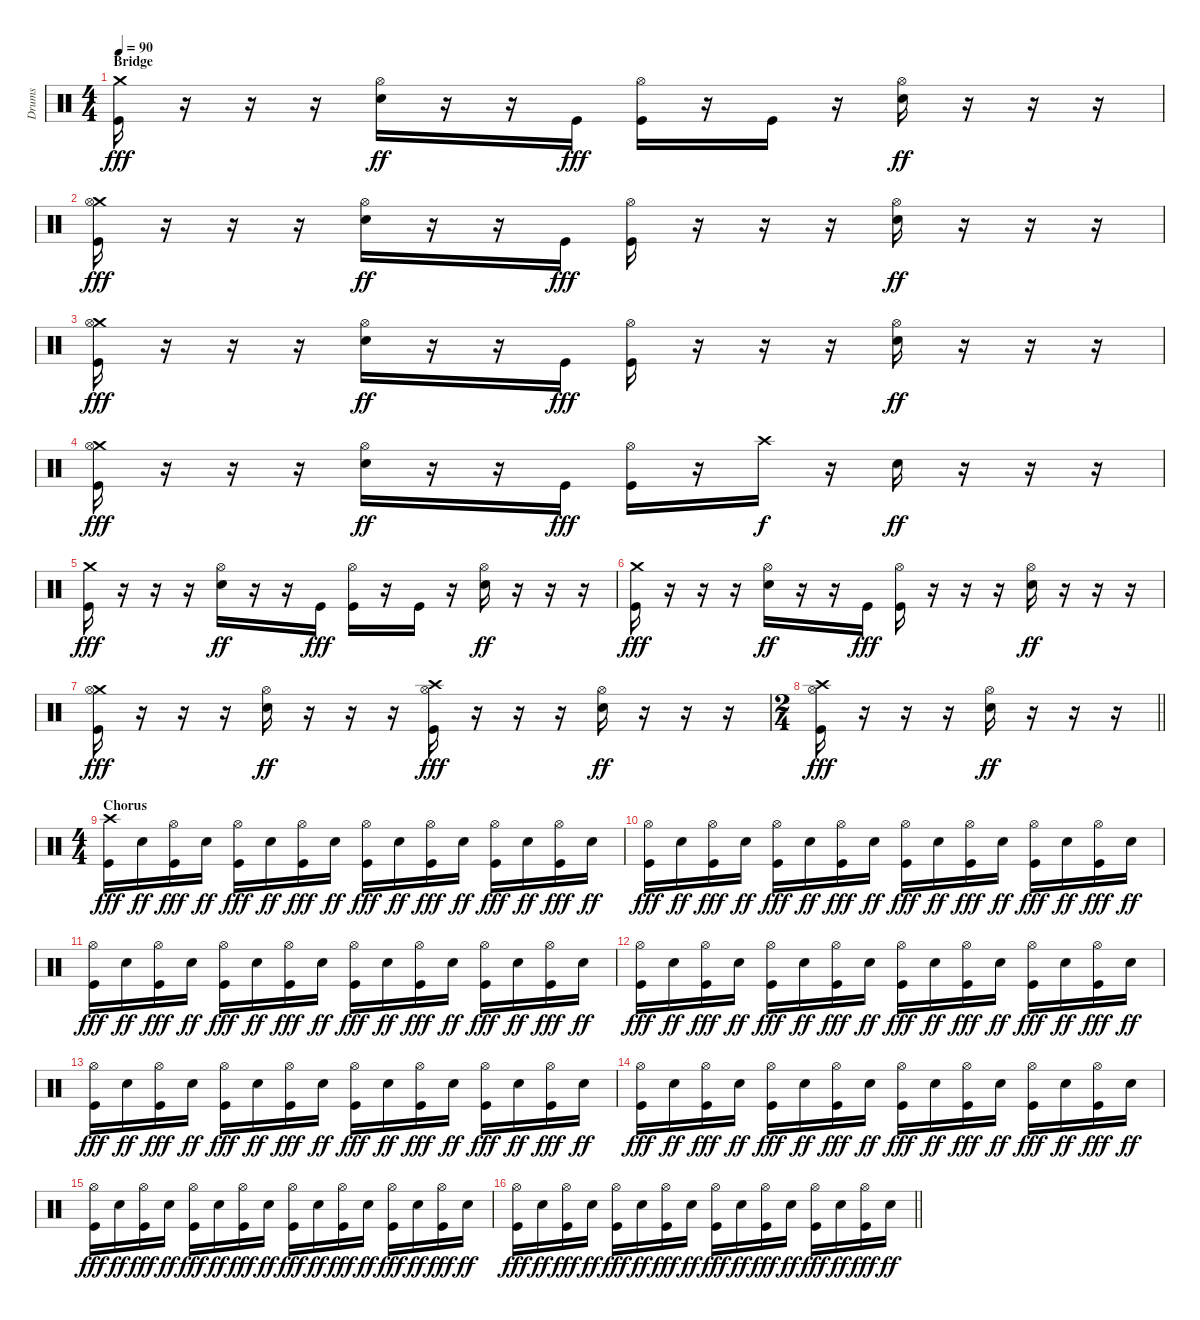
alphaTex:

\track ("Drums" "Drums") {instrument percussion}
\staff {score}
\articulation defaults
\ts (4 4)
\section ("" "Bridge")
\tempo 90
\clef neutral
\ks c
("Crash medium (hit)" "Kick (hit)").16{dy fff} r.16 r.16 r.16 ("Hi-Hat (open)" "Electric Snare (hit)").16{dy ff} r.16 r.16 "Kick (hit)".16{dy fff} ("Hi-Hat (open)" "Kick (hit)").16 r.16 "Kick (hit)".16 r.16 ("Hi-Hat (open)" "Electric Snare (hit)").16{dy ff} r.16 r.16 r.16 |
("Crash medium (hit)" "Hi-Hat (open)" "Kick (hit)").16{dy fff} r.16 r.16 r.16 ("Hi-Hat (open)" "Electric Snare (hit)").16{dy ff} r.16 r.16 "Kick (hit)".16{dy fff} ("Hi-Hat (open)" "Kick (hit)").16 r.16 r.16 r.16 ("Hi-Hat (open)" "Electric Snare (hit)").16{dy ff} r.16 r.16 r.16 |
("Crash medium (hit)" "Hi-Hat (open)" "Kick (hit)").16{dy fff} r.16 r.16 r.16 ("Hi-Hat (open)" "Electric Snare (hit)").16{dy ff} r.16 r.16 "Kick (hit)".16{dy fff} ("Hi-Hat (open)" "Kick (hit)").16 r.16 r.16 r.16 ("Hi-Hat (open)" "Electric Snare (hit)").16{dy ff} r.16 r.16 r.16 |
("Crash medium (hit)" "Hi-Hat (open)" "Kick (hit)").16{dy fff} r.16 r.16 r.16 ("Hi-Hat (open)" "Electric Snare (hit)").16{dy ff} r.16 r.16 "Kick (hit)".16{dy fff} ("Hi-Hat (open)" "Kick (hit)").16 r.16 "Crash high (hit)".16{dy f} r.16 "Electric Snare (hit)".16{dy ff} r.16 r.16 r.16 |
("Crash medium (hit)" "Kick (hit)").16{dy fff} r.16 r.16 r.16 ("Hi-Hat (open)" "Electric Snare (hit)").16{dy ff} r.16 r.16 "Kick (hit)".16{dy fff} ("Hi-Hat (open)" "Kick (hit)").16 r.16 "Kick (hit)".16 r.16 ("Hi-Hat (open)" "Electric Snare (hit)").16{dy ff} r.16 r.16 r.16 |
("Crash medium (hit)" "Kick (hit)").16{dy fff} r.16 r.16 r.16 ("Hi-Hat (open)" "Electric Snare (hit)").16{dy ff} r.16 r.16 "Kick (hit)".16{dy fff} ("Hi-Hat (open)" "Kick (hit)").16 r.16 r.16 r.16 ("Hi-Hat (open)" "Electric Snare (hit)").16{dy ff} r.16 r.16 r.16 |
("Crash medium (hit)" "Hi-Hat (open)" "Kick (hit)").16{dy fff} r.16 r.16 r.16 ("Hi-Hat (open)" "Electric Snare (hit)").16{dy ff} r.16 r.16 r.16 ("Crash high (hit)" "Hi-Hat (open)" "Kick (hit)").16{dy fff} r.16 r.16 r.16 ("Hi-Hat (open)" "Electric Snare (hit)").16{dy ff} r.16 r.16 r.16 |
\ts (2 4)
\barLineRight lightlight
("Crash high (hit)" "Hi-Hat (open)" "Kick (hit)").16{dy fff} r.16 r.16 r.16 ("Hi-Hat (open)" "Electric Snare (hit)").16{dy ff} r.16 r.16 r.16 |
\ts (4 4)
\section ("" "Chorus")
("Crash high (hit)" "Kick (hit)").16{dy fff} "Electric Snare (hit)".16{dy ff} ("Hi-Hat (open)" "Kick (hit)").16{dy fff} "Electric Snare (hit)".16{dy ff} ("Hi-Hat (open)" "Kick (hit)").16{dy fff} "Electric Snare (hit)".16{dy ff} ("Hi-Hat (open)" "Kick (hit)").16{dy fff} "Electric Snare (hit)".16{dy ff} ("Hi-Hat (open)" "Kick (hit)").16{dy fff} "Electric Snare (hit)".16{dy ff} ("Hi-Hat (open)" "Kick (hit)").16{dy fff} "Electric Snare (hit)".16{dy ff} ("Hi-Hat (open)" "Kick (hit)").16{dy fff} "Electric Snare (hit)".16{dy ff} ("Hi-Hat (open)" "Kick (hit)").16{dy fff} "Electric Snare (hit)".16{dy ff} |
("Hi-Hat (open)" "Kick (hit)").16{dy fff} "Electric Snare (hit)".16{dy ff} ("Hi-Hat (open)" "Kick (hit)").16{dy fff} "Electric Snare (hit)".16{dy ff} ("Hi-Hat (open)" "Kick (hit)").16{dy fff} "Electric Snare (hit)".16{dy ff} ("Hi-Hat (open)" "Kick (hit)").16{dy fff} "Electric Snare (hit)".16{dy ff} ("Hi-Hat (open)" "Kick (hit)").16{dy fff} "Electric Snare (hit)".16{dy ff} ("Hi-Hat (open)" "Kick (hit)").16{dy fff} "Electric Snare (hit)".16{dy ff} ("Hi-Hat (open)" "Kick (hit)").16{dy fff} "Electric Snare (hit)".16{dy ff} ("Hi-Hat (open)" "Kick (hit)").16{dy fff} "Electric Snare (hit)".16{dy ff} |
("Hi-Hat (open)" "Kick (hit)").16{dy fff} "Electric Snare (hit)".16{dy ff} ("Hi-Hat (open)" "Kick (hit)").16{dy fff} "Electric Snare (hit)".16{dy ff} ("Hi-Hat (open)" "Kick (hit)").16{dy fff} "Electric Snare (hit)".16{dy ff} ("Hi-Hat (open)" "Kick (hit)").16{dy fff} "Electric Snare (hit)".16{dy ff} ("Hi-Hat (open)" "Kick (hit)").16{dy fff} "Electric Snare (hit)".16{dy ff} ("Hi-Hat (open)" "Kick (hit)").16{dy fff} "Electric Snare (hit)".16{dy ff} ("Hi-Hat (open)" "Kick (hit)").16{dy fff} "Electric Snare (hit)".16{dy ff} ("Hi-Hat (open)" "Kick (hit)").16{dy fff} "Electric Snare (hit)".16{dy ff} |
("Hi-Hat (open)" "Kick (hit)").16{dy fff} "Electric Snare (hit)".16{dy ff} ("Hi-Hat (open)" "Kick (hit)").16{dy fff} "Electric Snare (hit)".16{dy ff} ("Hi-Hat (open)" "Kick (hit)").16{dy fff} "Electric Snare (hit)".16{dy ff} ("Hi-Hat (open)" "Kick (hit)").16{dy fff} "Electric Snare (hit)".16{dy ff} ("Hi-Hat (open)" "Kick (hit)").16{dy fff} "Electric Snare (hit)".16{dy ff} ("Hi-Hat (open)" "Kick (hit)").16{dy fff} "Electric Snare (hit)".16{dy ff} ("Hi-Hat (open)" "Kick (hit)").16{dy fff} "Electric Snare (hit)".16{dy ff} ("Hi-Hat (open)" "Kick (hit)").16{dy fff} "Electric Snare (hit)".16{dy ff} |
("Hi-Hat (open)" "Kick (hit)").16{dy fff} "Electric Snare (hit)".16{dy ff} ("Hi-Hat (open)" "Kick (hit)").16{dy fff} "Electric Snare (hit)".16{dy ff} ("Hi-Hat (open)" "Kick (hit)").16{dy fff} "Electric Snare (hit)".16{dy ff} ("Hi-Hat (open)" "Kick (hit)").16{dy fff} "Electric Snare (hit)".16{dy ff} ("Hi-Hat (open)" "Kick (hit)").16{dy fff} "Electric Snare (hit)".16{dy ff} ("Hi-Hat (open)" "Kick (hit)").16{dy fff} "Electric Snare (hit)".16{dy ff} ("Hi-Hat (open)" "Kick (hit)").16{dy fff} "Electric Snare (hit)".16{dy ff} ("Hi-Hat (open)" "Kick (hit)").16{dy fff} "Electric Snare (hit)".16{dy ff} |
("Hi-Hat (open)" "Kick (hit)").16{dy fff} "Electric Snare (hit)".16{dy ff} ("Hi-Hat (open)" "Kick (hit)").16{dy fff} "Electric Snare (hit)".16{dy ff} ("Hi-Hat (open)" "Kick (hit)").16{dy fff} "Electric Snare (hit)".16{dy ff} ("Hi-Hat (open)" "Kick (hit)").16{dy fff} "Electric Snare (hit)".16{dy ff} ("Hi-Hat (open)" "Kick (hit)").16{dy fff} "Electric Snare (hit)".16{dy ff} ("Hi-Hat (open)" "Kick (hit)").16{dy fff} "Electric Snare (hit)".16{dy ff} ("Hi-Hat (open)" "Kick (hit)").16{dy fff} "Electric Snare (hit)".16{dy ff} ("Hi-Hat (open)" "Kick (hit)").16{dy fff} "Electric Snare (hit)".16{dy ff} |
("Hi-Hat (open)" "Kick (hit)").16{dy fff} "Electric Snare (hit)".16{dy ff} ("Hi-Hat (open)" "Kick (hit)").16{dy fff} "Electric Snare (hit)".16{dy ff} ("Hi-Hat (open)" "Kick (hit)").16{dy fff} "Electric Snare (hit)".16{dy ff} ("Hi-Hat (open)" "Kick (hit)").16{dy fff} "Electric Snare (hit)".16{dy ff} ("Hi-Hat (open)" "Kick (hit)").16{dy fff} "Electric Snare (hit)".16{dy ff} ("Hi-Hat (open)" "Kick (hit)").16{dy fff} "Electric Snare (hit)".16{dy ff} ("Hi-Hat (open)" "Kick (hit)").16{dy fff} "Electric Snare (hit)".16{dy ff} ("Hi-Hat (open)" "Kick (hit)").16{dy fff} "Electric Snare (hit)".16{dy ff} |
\barLineRight lightlight
("Hi-Hat (open)" "Kick (hit)").16{dy fff} "Electric Snare (hit)".16{dy ff} ("Hi-Hat (open)" "Kick (hit)").16{dy fff} "Electric Snare (hit)".16{dy ff} ("Hi-Hat (open)" "Kick (hit)").16{dy fff} "Electric Snare (hit)".16{dy ff} ("Hi-Hat (open)" "Kick (hit)").16{dy fff} "Electric Snare (hit)".16{dy ff} ("Hi-Hat (open)" "Kick (hit)").16{dy fff} "Electric Snare (hit)".16{dy ff} ("Hi-Hat (open)" "Kick (hit)").16{dy fff} "Electric Snare (hit)".16{dy ff} ("Hi-Hat (open)" "Kick (hit)").16{dy fff} "Electric Snare (hit)".16{dy ff} ("Hi-Hat (open)" "Kick (hit)").16{dy fff} "Electric Snare (hit)".16{dy ff}
